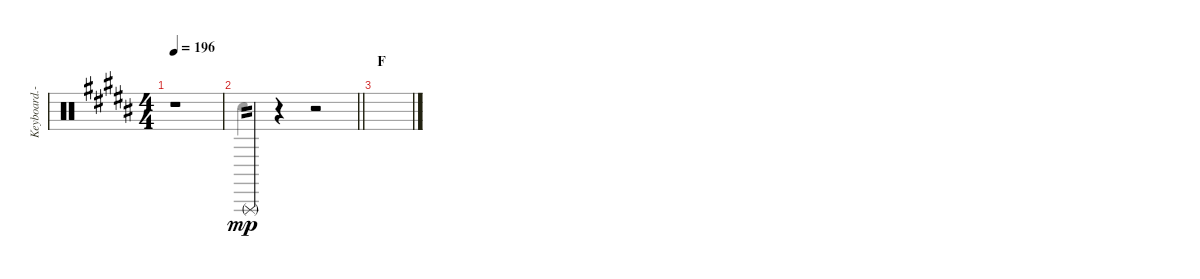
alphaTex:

\track ("Keyboard.-III" "Keyboard.-") {instrument percussion}
\staff {score}
\articulation defaults
\voice
\ts (4 4)
\tempo 196
\clef neutral
\ks b
r.1{dy mp} |
\barLineRight lightlight "Triangle (rnute)".4{tp 2}
r.4 r.2 |
\section ("" "F")
|
|
|
|
|
|
|
|
|
|
|
|
|
\voice
\clef neutral
\ottava regular
\simile none
\ks b
|
\barLineRight lightlight "Hand Clap (hit)".4
r.4 r.2 |
|
|
|
|
|
|
|
|
|
|
|
|
|
